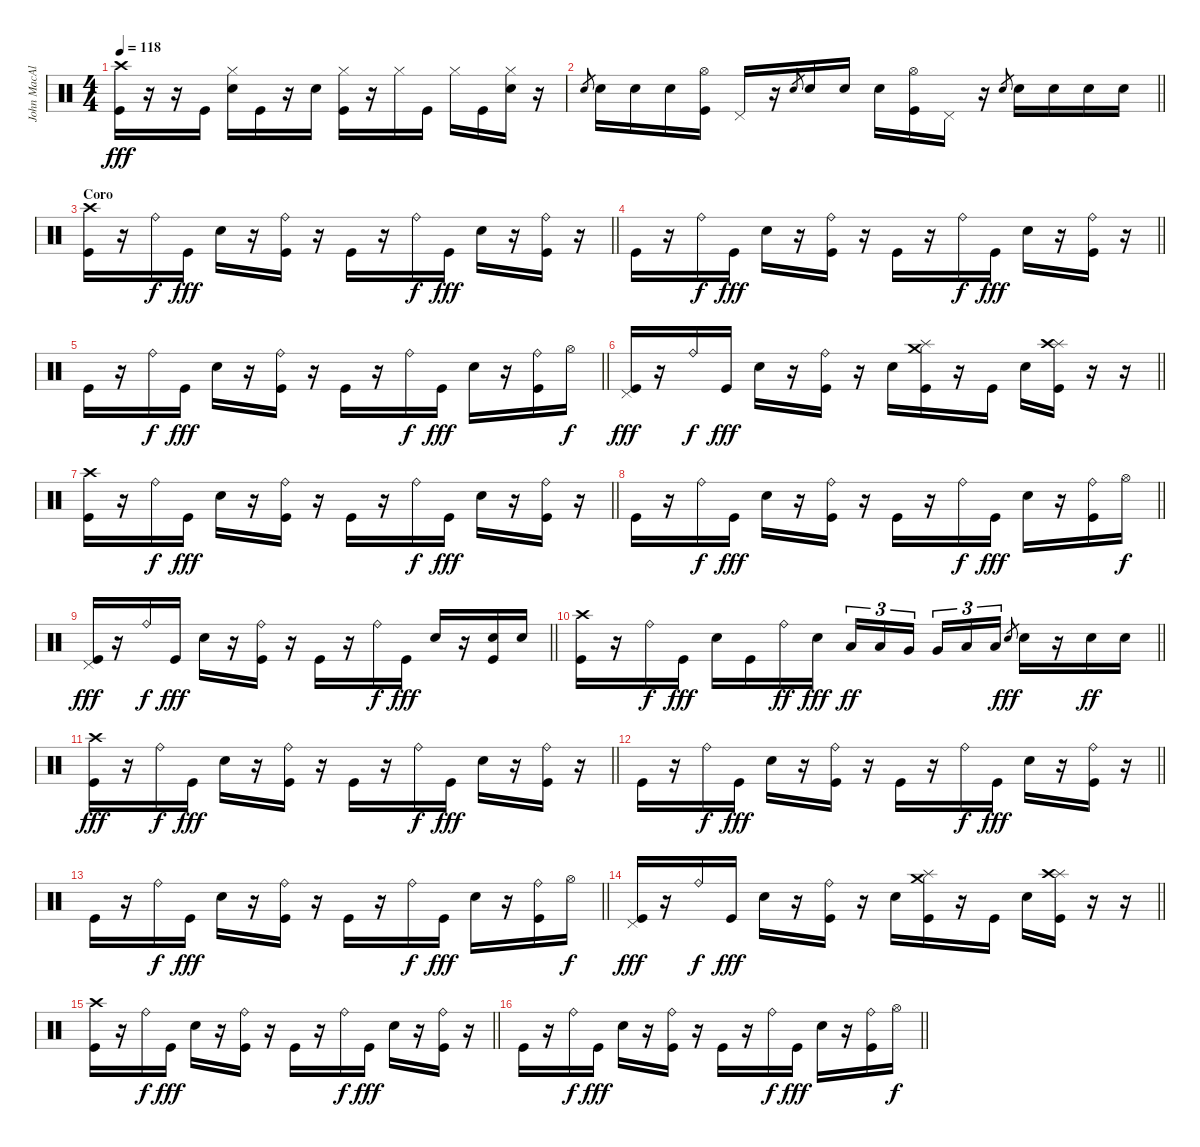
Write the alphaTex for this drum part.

\track ("John MacAluso" "John MacAl") {instrument percussion}
\staff {score}
\articulation defaults
\ts (4 4)
\tempo 118
\clef neutral
\ks c
("Crash high (hit)" "Kick (hit)").16{dy fff} r.16 r.16 "Kick (hit)".16 ("Hi-Hat (closed)" "Electric Snare (hit)").16 "Kick (hit)".16 r.16 "Electric Snare (hit)".16 ("Hi-Hat (closed)" "Kick (hit)").16 r.16 "Hi-Hat (closed)".16 "Kick (hit)".16 "Hi-Hat (closed)".16 "Kick (hit)".16 ("Hi-Hat (closed)" "Electric Snare (hit)").16 r.16 |
\barLineRight lightlight "Electric Snare (hit)".8{gr} "Electric Snare (hit)".16 "Electric Snare (hit)".16 "Electric Snare (hit)".16
("Hi-Hat (open)" "Kick (hit)").16 "Pedal Hi-Hat (hit)".16 r.16 "Electric Snare (hit)".8{gr} "Electric Snare (hit)".16 "Electric Snare (hit)".16 "Electric Snare (hit)".16 ("Hi-Hat (open)" "Kick (hit)").16 "Pedal Hi-Hat (hit)".16 r.16 "Electric Snare (hit)".8{gr} "Electric Snare (hit)".16 "Electric Snare (hit)".16 "Electric Snare (hit)".16 "Electric Snare (hit)".16 |
\section ("" "Coro")
\barLineRight lightlight
("Crash high (hit)" "Kick (hit)").16 r.16 "Ride (bell)".16{dy f} "Kick (hit)".16{dy fff} "Electric Snare (hit)".16 r.16 ("Ride (bell)" "Kick (hit)").16 r.16 "Kick (hit)".16 r.16 "Ride (bell)".16{dy f} "Kick (hit)".16{dy fff} "Electric Snare (hit)".16 r.16 ("Ride (bell)" "Kick (hit)").16 r.16 |
\barLineRight lightlight "Kick (hit)".16
r.16 "Ride (bell)".16{dy f} "Kick (hit)".16{dy fff} "Electric Snare (hit)".16 r.16 ("Ride (bell)" "Kick (hit)").16 r.16 "Kick (hit)".16 r.16 "Ride (bell)".16{dy f} "Kick (hit)".16{dy fff} "Electric Snare (hit)".16 r.16 ("Ride (bell)" "Kick (hit)").16 r.16 |
\barLineRight lightlight "Kick (hit)".16
r.16 "Ride (bell)".16{dy f} "Kick (hit)".16{dy fff} "Electric Snare (hit)".16 r.16 ("Ride (bell)" "Kick (hit)").16 r.16 "Kick (hit)".16 r.16 "Ride (bell)".16{dy f} "Kick (hit)".16{dy fff} "Electric Snare (hit)".16 r.16 ("Ride (bell)" "Kick (hit)").16 "Hi-Hat (open)".16{dy f} |
\barLineRight lightlight
("Pedal Hi-Hat (hit)" "Kick (hit)").16{dy fff} r.16 "Ride (bell)".16{dy f} "Kick (hit)".16{dy fff} "Electric Snare (hit)".16 r.16 ("Ride (bell)" "Kick (hit)").16 r.16 "Electric Snare (hit)".16 ("Splash (hit)" "Crash medium (hit)" "Kick (hit)").16 r.16 "Kick (hit)".16 "Electric Snare (hit)".16 ("Splash (hit)" "Crash high (hit)" "Kick (hit)").16 r.16 r.16 |
\barLineRight lightlight
("Crash high (hit)" "Kick (hit)").16 r.16 "Ride (bell)".16{dy f} "Kick (hit)".16{dy fff} "Electric Snare (hit)".16 r.16 ("Ride (bell)" "Kick (hit)").16 r.16 "Kick (hit)".16 r.16 "Ride (bell)".16{dy f} "Kick (hit)".16{dy fff} "Electric Snare (hit)".16 r.16 ("Ride (bell)" "Kick (hit)").16 r.16 |
\barLineRight lightlight "Kick (hit)".16
r.16 "Ride (bell)".16{dy f} "Kick (hit)".16{dy fff} "Electric Snare (hit)".16 r.16 ("Ride (bell)" "Kick (hit)").16 r.16 "Kick (hit)".16 r.16 "Ride (bell)".16{dy f} "Kick (hit)".16{dy fff} "Electric Snare (hit)".16 r.16 ("Ride (bell)" "Kick (hit)").16 "Hi-Hat (open)".16{dy f} |
\barLineRight lightlight
("Pedal Hi-Hat (hit)" "Kick (hit)").16{dy fff} r.16 "Ride (bell)".16{dy f} "Kick (hit)".16{dy fff} "Electric Snare (hit)".16 r.16 ("Ride (bell)" "Kick (hit)").16 r.16 "Kick (hit)".16 r.16 "Ride (bell)".16{dy f} "Kick (hit)".16{dy fff} "Electric Snare (hit)".16 r.16 ("Electric Snare (hit)" "Kick (hit)").16 "Electric Snare (hit)".16 |
\barLineRight lightlight
("Crash high (hit)" "Kick (hit)").16 r.16 "Ride (bell)".16{dy f} "Kick (hit)".16{dy fff} "Electric Snare (hit)".16 "Kick (hit)".16 "Ride (bell)".16{dy ff} "Electric Snare (hit)".16{dy fff} "Low Tom (hit)".16{tu (3 2) dy ff} "Low Tom (hit)".16{tu (3 2)} "Very Low Tom (hit)".16{tu (3 2) beam splitsecondary} "Very Low Tom (hit)".16{tu (3 2)} "Low Floor Tom (hit)".16{tu (3 2)} "Low Floor Tom (hit)".16{tu (3 2)} "Electric Snare (hit)".8{gr dy fff} "Electric Snare (hit)".16 r.16 "Electric Snare (hit)".16{dy ff} "Electric Snare (hit)".16 |
\barLineRight lightlight
("Crash high (hit)" "Kick (hit)").16{dy fff} r.16 "Ride (bell)".16{dy f} "Kick (hit)".16{dy fff} "Electric Snare (hit)".16 r.16 ("Ride (bell)" "Kick (hit)").16 r.16 "Kick (hit)".16 r.16 "Ride (bell)".16{dy f} "Kick (hit)".16{dy fff} "Electric Snare (hit)".16 r.16 ("Ride (bell)" "Kick (hit)").16 r.16 |
\barLineRight lightlight "Kick (hit)".16
r.16 "Ride (bell)".16{dy f} "Kick (hit)".16{dy fff} "Electric Snare (hit)".16 r.16 ("Ride (bell)" "Kick (hit)").16 r.16 "Kick (hit)".16 r.16 "Ride (bell)".16{dy f} "Kick (hit)".16{dy fff} "Electric Snare (hit)".16 r.16 ("Ride (bell)" "Kick (hit)").16 r.16 |
\barLineRight lightlight "Kick (hit)".16
r.16 "Ride (bell)".16{dy f} "Kick (hit)".16{dy fff} "Electric Snare (hit)".16 r.16 ("Ride (bell)" "Kick (hit)").16 r.16 "Kick (hit)".16 r.16 "Ride (bell)".16{dy f} "Kick (hit)".16{dy fff} "Electric Snare (hit)".16 r.16 ("Ride (bell)" "Kick (hit)").16 "Hi-Hat (open)".16{dy f} |
\barLineRight lightlight
("Pedal Hi-Hat (hit)" "Kick (hit)").16{dy fff} r.16 "Ride (bell)".16{dy f} "Kick (hit)".16{dy fff} "Electric Snare (hit)".16 r.16 ("Ride (bell)" "Kick (hit)").16 r.16 "Electric Snare (hit)".16 ("Splash (hit)" "Crash medium (hit)" "Kick (hit)").16 r.16 "Kick (hit)".16 "Electric Snare (hit)".16 ("Splash (hit)" "Crash high (hit)" "Kick (hit)").16 r.16 r.16 |
\barLineRight lightlight
("Crash high (hit)" "Kick (hit)").16 r.16 "Ride (bell)".16{dy f} "Kick (hit)".16{dy fff} "Electric Snare (hit)".16 r.16 ("Ride (bell)" "Kick (hit)").16 r.16 "Kick (hit)".16 r.16 "Ride (bell)".16{dy f} "Kick (hit)".16{dy fff} "Electric Snare (hit)".16 r.16 ("Ride (bell)" "Kick (hit)").16 r.16 |
\barLineRight lightlight "Kick (hit)".16
r.16 "Ride (bell)".16{dy f} "Kick (hit)".16{dy fff} "Electric Snare (hit)".16 r.16 ("Ride (bell)" "Kick (hit)").16 r.16 "Kick (hit)".16 r.16 "Ride (bell)".16{dy f} "Kick (hit)".16{dy fff} "Electric Snare (hit)".16 r.16 ("Ride (bell)" "Kick (hit)").16 "Hi-Hat (open)".16{dy f}
